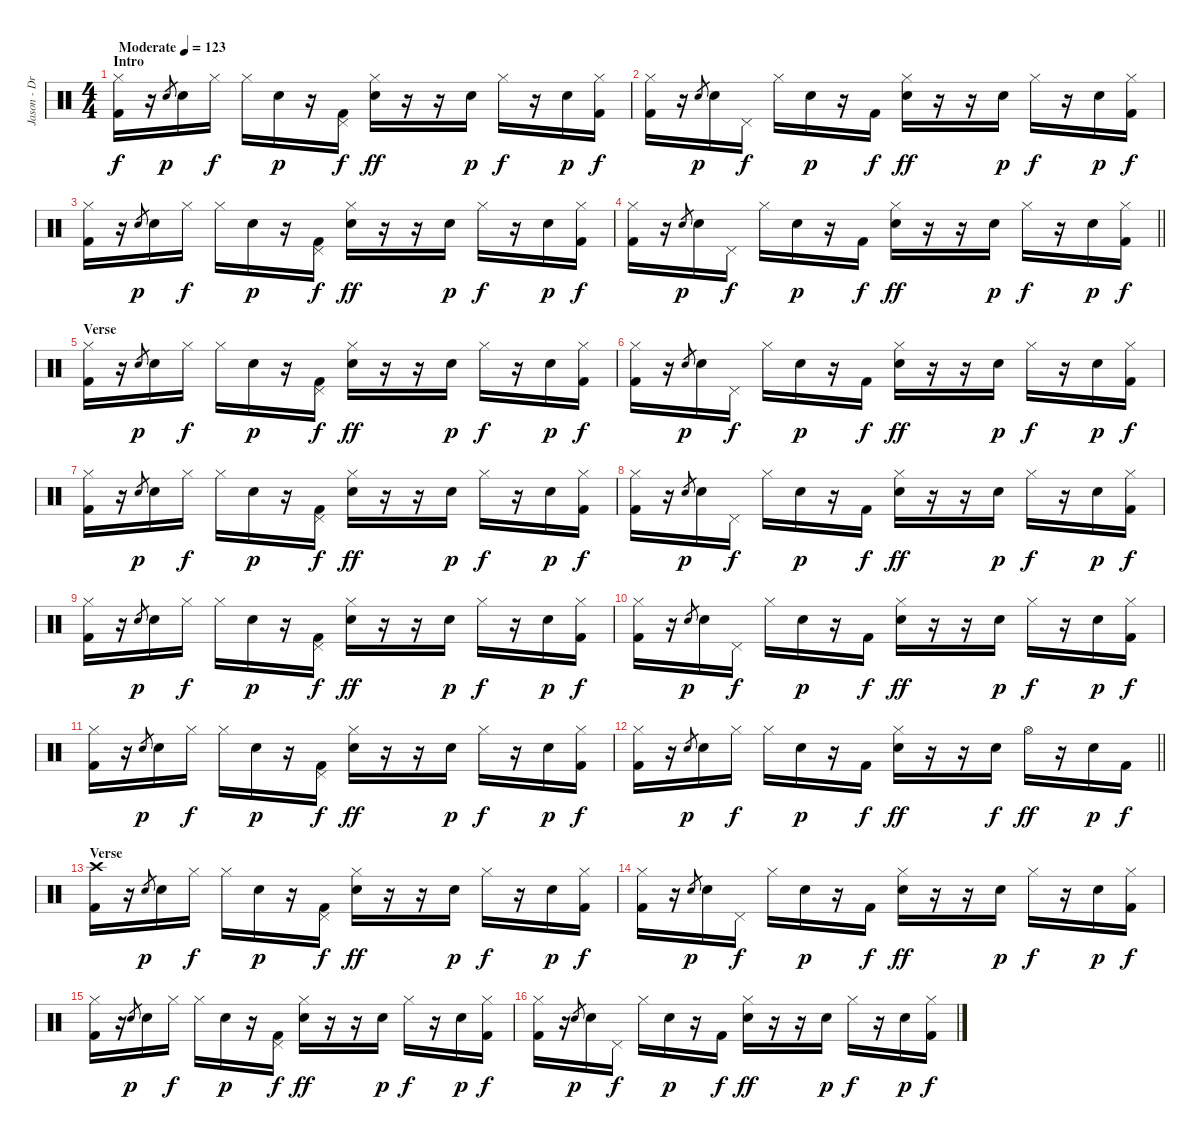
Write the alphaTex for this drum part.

\track ("Jason - Drums" "Jason - Dr") {instrument percussion}
\staff {score}
\articulation defaults
\ts (4 4)
\section ("" "Intro")
\tempo (123 "Moderate")
\clef neutral
\ks c
("Hi-Hat (closed)" "Kick (hit) 2").16{dy f} r.16 "Snare (hit) 2".8{gr dy p} "Snare (hit) 2".16 "Hi-Hat (closed)".16{dy f} "Hi-Hat (closed)".16 "Snare (hit) 2".16{dy p} r.16 ("Pedal Hi-Hat (hit)" "Kick (hit) 2").16{dy f} ("Hi-Hat (closed)" "Electric Snare (hit)").16{dy ff} r.16 r.16 "Snare (hit) 2".16{dy p} "Hi-Hat (closed)".16{dy f} r.16 "Snare (hit) 2".16{dy p} ("Hi-Hat (closed)" "Kick (hit) 2").16{dy f} |
("Hi-Hat (closed)" "Kick (hit) 2").16 r.16 "Snare (hit) 2".8{gr dy p} "Snare (hit) 2".16 "Pedal Hi-Hat (hit)".16{dy f} "Hi-Hat (closed)".16 "Snare (hit) 2".16{dy p} r.16 "Kick (hit) 2".16{dy f} ("Hi-Hat (closed)" "Electric Snare (hit)").16{dy ff} r.16 r.16 "Snare (hit) 2".16{dy p} "Hi-Hat (closed)".16{dy f} r.16 "Snare (hit) 2".16{dy p} ("Hi-Hat (closed)" "Kick (hit) 2").16{dy f} |
("Hi-Hat (closed)" "Kick (hit) 2").16 r.16 "Snare (hit) 2".8{gr dy p} "Snare (hit) 2".16 "Hi-Hat (closed)".16{dy f} "Hi-Hat (closed)".16 "Snare (hit) 2".16{dy p} r.16 ("Pedal Hi-Hat (hit)" "Kick (hit) 2").16{dy f} ("Hi-Hat (closed)" "Electric Snare (hit)").16{dy ff} r.16 r.16 "Snare (hit) 2".16{dy p} "Hi-Hat (closed)".16{dy f} r.16 "Snare (hit) 2".16{dy p} ("Hi-Hat (closed)" "Kick (hit) 2").16{dy f} |
\barLineRight lightlight
("Hi-Hat (closed)" "Kick (hit) 2").16 r.16 "Snare (hit) 2".8{gr dy p} "Snare (hit) 2".16 "Pedal Hi-Hat (hit)".16{dy f} "Hi-Hat (closed)".16 "Snare (hit) 2".16{dy p} r.16 "Kick (hit) 2".16{dy f} ("Hi-Hat (closed)" "Electric Snare (hit)").16{dy ff} r.16 r.16 "Snare (hit) 2".16{dy p} "Hi-Hat (closed)".16{dy f} r.16 "Snare (hit) 2".16{dy p} ("Hi-Hat (closed)" "Kick (hit) 2").16{dy f} |
\section ("" "Verse")
("Hi-Hat (closed)" "Kick (hit) 2").16 r.16 "Snare (hit) 2".8{gr dy p} "Snare (hit) 2".16 "Hi-Hat (closed)".16{dy f} "Hi-Hat (closed)".16 "Snare (hit) 2".16{dy p} r.16 ("Pedal Hi-Hat (hit)" "Kick (hit) 2").16{dy f} ("Hi-Hat (closed)" "Electric Snare (hit)").16{dy ff} r.16 r.16 "Snare (hit) 2".16{dy p} "Hi-Hat (closed)".16{dy f} r.16 "Snare (hit) 2".16{dy p} ("Hi-Hat (closed)" "Kick (hit) 2").16{dy f} |
("Hi-Hat (closed)" "Kick (hit) 2").16 r.16 "Snare (hit) 2".8{gr dy p} "Snare (hit) 2".16 "Pedal Hi-Hat (hit)".16{dy f} "Hi-Hat (closed)".16 "Snare (hit) 2".16{dy p} r.16 "Kick (hit) 2".16{dy f} ("Hi-Hat (closed)" "Electric Snare (hit)").16{dy ff} r.16 r.16 "Snare (hit) 2".16{dy p} "Hi-Hat (closed)".16{dy f} r.16 "Snare (hit) 2".16{dy p} ("Hi-Hat (closed)" "Kick (hit) 2").16{dy f} |
("Hi-Hat (closed)" "Kick (hit) 2").16 r.16 "Snare (hit) 2".8{gr dy p} "Snare (hit) 2".16 "Hi-Hat (closed)".16{dy f} "Hi-Hat (closed)".16 "Snare (hit) 2".16{dy p} r.16 ("Pedal Hi-Hat (hit)" "Kick (hit) 2").16{dy f} ("Hi-Hat (closed)" "Electric Snare (hit)").16{dy ff} r.16 r.16 "Snare (hit) 2".16{dy p} "Hi-Hat (closed)".16{dy f} r.16 "Snare (hit) 2".16{dy p} ("Hi-Hat (closed)" "Kick (hit) 2").16{dy f} |
("Hi-Hat (closed)" "Kick (hit) 2").16 r.16 "Snare (hit) 2".8{gr dy p} "Snare (hit) 2".16 "Pedal Hi-Hat (hit)".16{dy f} "Hi-Hat (closed)".16 "Snare (hit) 2".16{dy p} r.16 "Kick (hit) 2".16{dy f} ("Hi-Hat (closed)" "Electric Snare (hit)").16{dy ff} r.16 r.16 "Snare (hit) 2".16{dy p} "Hi-Hat (closed)".16{dy f} r.16 "Snare (hit) 2".16{dy p} ("Hi-Hat (closed)" "Kick (hit) 2").16{dy f} |
("Hi-Hat (closed)" "Kick (hit) 2").16 r.16 "Snare (hit) 2".8{gr dy p} "Snare (hit) 2".16 "Hi-Hat (closed)".16{dy f} "Hi-Hat (closed)".16 "Snare (hit) 2".16{dy p} r.16 ("Pedal Hi-Hat (hit)" "Kick (hit) 2").16{dy f} ("Hi-Hat (closed)" "Electric Snare (hit)").16{dy ff} r.16 r.16 "Snare (hit) 2".16{dy p} "Hi-Hat (closed)".16{dy f} r.16 "Snare (hit) 2".16{dy p} ("Hi-Hat (closed)" "Kick (hit) 2").16{dy f} |
("Hi-Hat (closed)" "Kick (hit) 2").16 r.16 "Snare (hit) 2".8{gr dy p} "Snare (hit) 2".16 "Pedal Hi-Hat (hit)".16{dy f} "Hi-Hat (closed)".16 "Snare (hit) 2".16{dy p} r.16 "Kick (hit) 2".16{dy f} ("Hi-Hat (closed)" "Electric Snare (hit)").16{dy ff} r.16 r.16 "Snare (hit) 2".16{dy p} "Hi-Hat (closed)".16{dy f} r.16 "Snare (hit) 2".16{dy p} ("Hi-Hat (closed)" "Kick (hit) 2").16{dy f} |
("Hi-Hat (closed)" "Kick (hit) 2").16 r.16 "Snare (hit) 2".8{gr dy p} "Snare (hit) 2".16 "Hi-Hat (closed)".16{dy f} "Hi-Hat (closed)".16 "Snare (hit) 2".16{dy p} r.16 ("Pedal Hi-Hat (hit)" "Kick (hit) 2").16{dy f} ("Hi-Hat (closed)" "Electric Snare (hit)").16{dy ff} r.16 r.16 "Snare (hit) 2".16{dy p} "Hi-Hat (closed)".16{dy f} r.16 "Snare (hit) 2".16{dy p} ("Hi-Hat (closed)" "Kick (hit) 2").16{dy f} |
\barLineRight lightlight
("Hi-Hat (closed)" "Kick (hit) 2").16 r.16 "Snare (hit) 2".8{gr dy p} "Snare (hit) 2".16 "Hi-Hat (closed)".16{dy f} "Hi-Hat (closed)".16 "Snare (hit) 2".16{dy p} r.16 "Kick (hit) 2".16{dy f} ("Hi-Hat (closed)" "Electric Snare (hit)").16{dy ff} r.16 r.16 "Electric Snare (hit)".16{dy f} "Hi-Hat (open)".16{dy ff} r.16 "Snare (hit) 2".16{dy p} "Kick (hit) 2".16{dy f} |
\section ("" "Verse")
("Crash high (hit)" "Kick (hit) 2").16 r.16 "Snare (hit) 2".8{gr dy p} "Snare (hit) 2".16 "Hi-Hat (closed)".16{dy f} "Hi-Hat (closed)".16 "Snare (hit) 2".16{dy p} r.16 ("Pedal Hi-Hat (hit)" "Kick (hit) 2").16{dy f} ("Hi-Hat (closed)" "Electric Snare (hit)").16{dy ff} r.16 r.16 "Snare (hit) 2".16{dy p} "Hi-Hat (closed)".16{dy f} r.16 "Snare (hit) 2".16{dy p} ("Hi-Hat (closed)" "Kick (hit) 2").16{dy f} |
("Hi-Hat (closed)" "Kick (hit) 2").16 r.16 "Snare (hit) 2".8{gr dy p} "Snare (hit) 2".16 "Pedal Hi-Hat (hit)".16{dy f} "Hi-Hat (closed)".16 "Snare (hit) 2".16{dy p} r.16 "Kick (hit) 2".16{dy f} ("Hi-Hat (closed)" "Electric Snare (hit)").16{dy ff} r.16 r.16 "Snare (hit) 2".16{dy p} "Hi-Hat (closed)".16{dy f} r.16 "Snare (hit) 2".16{dy p} ("Hi-Hat (closed)" "Kick (hit) 2").16{dy f} |
("Hi-Hat (closed)" "Kick (hit) 2").16 r.16 "Snare (hit) 2".8{gr dy p} "Snare (hit) 2".16 "Hi-Hat (closed)".16{dy f} "Hi-Hat (closed)".16 "Snare (hit) 2".16{dy p} r.16 ("Pedal Hi-Hat (hit)" "Kick (hit) 2").16{dy f} ("Hi-Hat (closed)" "Electric Snare (hit)").16{dy ff} r.16 r.16 "Snare (hit) 2".16{dy p} "Hi-Hat (closed)".16{dy f} r.16 "Snare (hit) 2".16{dy p} ("Hi-Hat (closed)" "Kick (hit) 2").16{dy f} |
("Hi-Hat (closed)" "Kick (hit) 2").16 r.16 "Snare (hit) 2".8{gr dy p} "Snare (hit) 2".16 "Pedal Hi-Hat (hit)".16{dy f} "Hi-Hat (closed)".16 "Snare (hit) 2".16{dy p} r.16 "Kick (hit) 2".16{dy f} ("Hi-Hat (closed)" "Electric Snare (hit)").16{dy ff} r.16 r.16 "Snare (hit) 2".16{dy p} "Hi-Hat (closed)".16{dy f} r.16 "Snare (hit) 2".16{dy p} ("Hi-Hat (closed)" "Kick (hit) 2").16{dy f}
